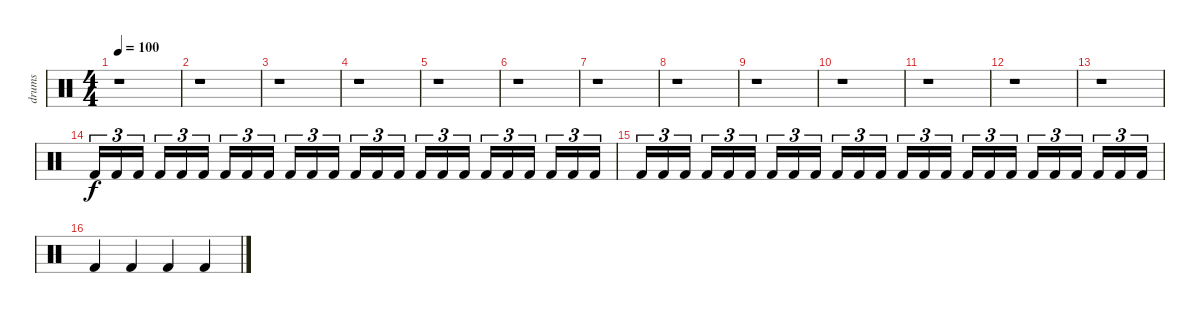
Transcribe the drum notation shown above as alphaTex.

\track ("drums" "drums") {instrument percussion}
\staff {score}
\articulation defaults
\ts (4 4)
\tempo 100
\clef neutral
\ks c
r.1{dy f} |
r.1 |
r.1 |
r.1 |
r.1 |
r.1 |
r.1 |
r.1 |
r.1 |
r.1 |
r.1 |
r.1 |
r.1 |
"Kick (hit) 2".16{tu (3 2)} "Kick (hit) 2".16{tu (3 2)} "Kick (hit) 2".16{tu (3 2)} "Kick (hit) 2".16{tu (3 2)} "Kick (hit) 2".16{tu (3 2)} "Kick (hit) 2".16{tu (3 2)} "Kick (hit) 2".16{tu (3 2)} "Kick (hit) 2".16{tu (3 2)} "Kick (hit) 2".16{tu (3 2)} "Kick (hit) 2".16{tu (3 2)} "Kick (hit) 2".16{tu (3 2)} "Kick (hit) 2".16{tu (3 2)} "Kick (hit) 2".16{tu (3 2)} "Kick (hit) 2".16{tu (3 2)} "Kick (hit) 2".16{tu (3 2)} "Kick (hit) 2".16{tu (3 2)} "Kick (hit) 2".16{tu (3 2)} "Kick (hit) 2".16{tu (3 2)} "Kick (hit) 2".16{tu (3 2)} "Kick (hit) 2".16{tu (3 2)} "Kick (hit) 2".16{tu (3 2)} "Kick (hit) 2".16{tu (3 2)} "Kick (hit) 2".16{tu (3 2)} "Kick (hit) 2".16{tu (3 2)} |
"Kick (hit) 2".16{tu (3 2)} "Kick (hit) 2".16{tu (3 2)} "Kick (hit) 2".16{tu (3 2)} "Kick (hit) 2".16{tu (3 2)} "Kick (hit) 2".16{tu (3 2)} "Kick (hit) 2".16{tu (3 2)} "Kick (hit) 2".16{tu (3 2)} "Kick (hit) 2".16{tu (3 2)} "Kick (hit) 2".16{tu (3 2)} "Kick (hit) 2".16{tu (3 2)} "Kick (hit) 2".16{tu (3 2)} "Kick (hit) 2".16{tu (3 2)} "Kick (hit) 2".16{tu (3 2)} "Kick (hit) 2".16{tu (3 2)} "Kick (hit) 2".16{tu (3 2)} "Kick (hit) 2".16{tu (3 2)} "Kick (hit) 2".16{tu (3 2)} "Kick (hit) 2".16{tu (3 2)} "Kick (hit) 2".16{tu (3 2)} "Kick (hit) 2".16{tu (3 2)} "Kick (hit) 2".16{tu (3 2)} "Kick (hit) 2".16{tu (3 2)} "Kick (hit) 2".16{tu (3 2)} "Kick (hit) 2".16{tu (3 2)} |
"Kick (hit) 2".4 "Kick (hit) 2".4 "Kick (hit) 2".4 "Kick (hit) 2".4
